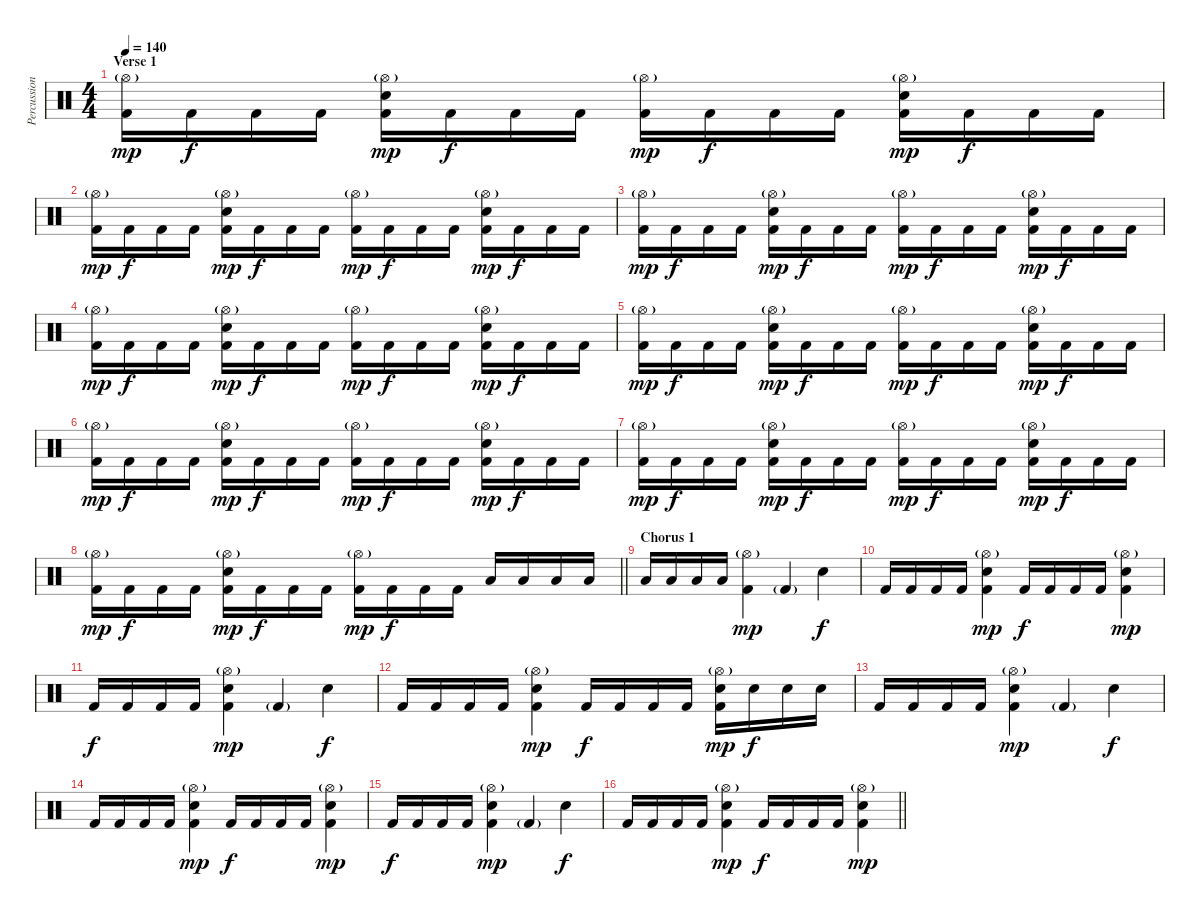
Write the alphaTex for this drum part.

\track ("Percussions" "Percussion") {instrument percussion}
\staff {score}
\articulation defaults
\ts (4 4)
\section ("" "Verse 1")
\tempo 140
\clef neutral
\ks c
("Hi-Hat (open)"{g} "Kick (hit) 2").16{dy mp} "Kick (hit) 2".16{dy f} "Kick (hit) 2".16 "Kick (hit) 2".16 ("Hi-Hat (open)"{g} "Electric Snare (hit)" "Kick (hit) 2").16{dy mp} "Kick (hit) 2".16{dy f} "Kick (hit) 2".16 "Kick (hit) 2".16 ("Hi-Hat (open)"{g} "Kick (hit) 2").16{dy mp} "Kick (hit) 2".16{dy f} "Kick (hit) 2".16 "Kick (hit) 2".16 ("Hi-Hat (open)"{g} "Electric Snare (hit)" "Kick (hit) 2").16{dy mp} "Kick (hit) 2".16{dy f} "Kick (hit) 2".16 "Kick (hit) 2".16 |
("Hi-Hat (open)"{g} "Kick (hit) 2").16{dy mp} "Kick (hit) 2".16{dy f} "Kick (hit) 2".16 "Kick (hit) 2".16 ("Hi-Hat (open)"{g} "Electric Snare (hit)" "Kick (hit) 2").16{dy mp} "Kick (hit) 2".16{dy f} "Kick (hit) 2".16 "Kick (hit) 2".16 ("Hi-Hat (open)"{g} "Kick (hit) 2").16{dy mp} "Kick (hit) 2".16{dy f} "Kick (hit) 2".16 "Kick (hit) 2".16 ("Hi-Hat (open)"{g} "Electric Snare (hit)" "Kick (hit) 2").16{dy mp} "Kick (hit) 2".16{dy f} "Kick (hit) 2".16 "Kick (hit) 2".16 |
("Hi-Hat (open)"{g} "Kick (hit) 2").16{dy mp} "Kick (hit) 2".16{dy f} "Kick (hit) 2".16 "Kick (hit) 2".16 ("Hi-Hat (open)"{g} "Electric Snare (hit)" "Kick (hit) 2").16{dy mp} "Kick (hit) 2".16{dy f} "Kick (hit) 2".16 "Kick (hit) 2".16 ("Hi-Hat (open)"{g} "Kick (hit) 2").16{dy mp} "Kick (hit) 2".16{dy f} "Kick (hit) 2".16 "Kick (hit) 2".16 ("Hi-Hat (open)"{g} "Electric Snare (hit)" "Kick (hit) 2").16{dy mp} "Kick (hit) 2".16{dy f} "Kick (hit) 2".16 "Kick (hit) 2".16 |
("Hi-Hat (open)"{g} "Kick (hit) 2").16{dy mp} "Kick (hit) 2".16{dy f} "Kick (hit) 2".16 "Kick (hit) 2".16 ("Hi-Hat (open)"{g} "Electric Snare (hit)" "Kick (hit) 2").16{dy mp} "Kick (hit) 2".16{dy f} "Kick (hit) 2".16 "Kick (hit) 2".16 ("Hi-Hat (open)"{g} "Kick (hit) 2").16{dy mp} "Kick (hit) 2".16{dy f} "Kick (hit) 2".16 "Kick (hit) 2".16 ("Hi-Hat (open)"{g} "Electric Snare (hit)" "Kick (hit) 2").16{dy mp} "Kick (hit) 2".16{dy f} "Kick (hit) 2".16 "Kick (hit) 2".16 |
("Hi-Hat (open)"{g} "Kick (hit) 2").16{dy mp} "Kick (hit) 2".16{dy f} "Kick (hit) 2".16 "Kick (hit) 2".16 ("Hi-Hat (open)"{g} "Electric Snare (hit)" "Kick (hit) 2").16{dy mp} "Kick (hit) 2".16{dy f} "Kick (hit) 2".16 "Kick (hit) 2".16 ("Hi-Hat (open)"{g} "Kick (hit) 2").16{dy mp} "Kick (hit) 2".16{dy f} "Kick (hit) 2".16 "Kick (hit) 2".16 ("Hi-Hat (open)"{g} "Electric Snare (hit)" "Kick (hit) 2").16{dy mp} "Kick (hit) 2".16{dy f} "Kick (hit) 2".16 "Kick (hit) 2".16 |
("Hi-Hat (open)"{g} "Kick (hit) 2").16{dy mp} "Kick (hit) 2".16{dy f} "Kick (hit) 2".16 "Kick (hit) 2".16 ("Hi-Hat (open)"{g} "Electric Snare (hit)" "Kick (hit) 2").16{dy mp} "Kick (hit) 2".16{dy f} "Kick (hit) 2".16 "Kick (hit) 2".16 ("Hi-Hat (open)"{g} "Kick (hit) 2").16{dy mp} "Kick (hit) 2".16{dy f} "Kick (hit) 2".16 "Kick (hit) 2".16 ("Hi-Hat (open)"{g} "Electric Snare (hit)" "Kick (hit) 2").16{dy mp} "Kick (hit) 2".16{dy f} "Kick (hit) 2".16 "Kick (hit) 2".16 |
("Hi-Hat (open)"{g} "Kick (hit) 2").16{dy mp} "Kick (hit) 2".16{dy f} "Kick (hit) 2".16 "Kick (hit) 2".16 ("Hi-Hat (open)"{g} "Electric Snare (hit)" "Kick (hit) 2").16{dy mp} "Kick (hit) 2".16{dy f} "Kick (hit) 2".16 "Kick (hit) 2".16 ("Hi-Hat (open)"{g} "Kick (hit) 2").16{dy mp} "Kick (hit) 2".16{dy f} "Kick (hit) 2".16 "Kick (hit) 2".16 ("Hi-Hat (open)"{g} "Electric Snare (hit)" "Kick (hit) 2").16{dy mp} "Kick (hit) 2".16{dy f} "Kick (hit) 2".16 "Kick (hit) 2".16 |
\barLineRight lightlight
("Hi-Hat (open)"{g} "Kick (hit) 2").16{dy mp} "Kick (hit) 2".16{dy f} "Kick (hit) 2".16 "Kick (hit) 2".16 ("Hi-Hat (open)"{g} "Electric Snare (hit)" "Kick (hit) 2").16{dy mp} "Kick (hit) 2".16{dy f} "Kick (hit) 2".16 "Kick (hit) 2".16 ("Hi-Hat (open)"{g} "Kick (hit) 2").16{dy mp} "Kick (hit) 2".16{dy f} "Kick (hit) 2".16 "Kick (hit) 2".16 "Low Tom (hit)".16 "Low Tom (hit)".16 "Low Tom (hit)".16 "Low Tom (hit)".16 |
\section ("" "Chorus 1")
"Low Floor Tom (hit)".16 "Low Floor Tom (hit)".16 "Low Floor Tom (hit)".16 "Low Floor Tom (hit)".16 ("Hi-Hat (open)"{g} "Kick (hit) 2").4{dy mp} "Kick (hit) 2"{g}.4 "Electric Snare (hit)".4{dy f} |
"Kick (hit) 2".16 "Kick (hit) 2".16 "Kick (hit) 2".16 "Kick (hit) 2".16 ("Hi-Hat (open)"{g} "Electric Snare (hit)" "Kick (hit) 2").4{dy mp} "Kick (hit) 2".16{dy f} "Kick (hit) 2".16 "Kick (hit) 2".16 "Kick (hit) 2".16 ("Hi-Hat (open)"{g} "Electric Snare (hit)" "Kick (hit) 2").4{dy mp} |
"Kick (hit) 2".16{dy f} "Kick (hit) 2".16 "Kick (hit) 2".16 "Kick (hit) 2".16 ("Hi-Hat (open)"{g} "Electric Snare (hit)" "Kick (hit) 2").4{dy mp} "Kick (hit) 2"{g}.4 "Electric Snare (hit)".4{dy f} |
"Kick (hit) 2".16 "Kick (hit) 2".16 "Kick (hit) 2".16 "Kick (hit) 2".16 ("Hi-Hat (open)"{g} "Electric Snare (hit)" "Kick (hit) 2").4{dy mp} "Kick (hit) 2".16{dy f} "Kick (hit) 2".16 "Kick (hit) 2".16 "Kick (hit) 2".16 ("Hi-Hat (open)"{g} "Electric Snare (hit)" "Kick (hit) 2").16{dy mp} "Electric Snare (hit)".16{dy f} "Electric Snare (hit)".16 "Electric Snare (hit)".16 |
"Kick (hit) 2".16 "Kick (hit) 2".16 "Kick (hit) 2".16 "Kick (hit) 2".16 ("Hi-Hat (open)"{g} "Electric Snare (hit)" "Kick (hit) 2").4{dy mp} "Kick (hit) 2"{g}.4 "Electric Snare (hit)".4{dy f} |
"Kick (hit) 2".16 "Kick (hit) 2".16 "Kick (hit) 2".16 "Kick (hit) 2".16 ("Hi-Hat (open)"{g} "Electric Snare (hit)" "Kick (hit) 2").4{dy mp} "Kick (hit) 2".16{dy f} "Kick (hit) 2".16 "Kick (hit) 2".16 "Kick (hit) 2".16 ("Hi-Hat (open)"{g} "Electric Snare (hit)" "Kick (hit) 2").4{dy mp} |
"Kick (hit) 2".16{dy f} "Kick (hit) 2".16 "Kick (hit) 2".16 "Kick (hit) 2".16 ("Hi-Hat (open)"{g} "Electric Snare (hit)" "Kick (hit) 2").4{dy mp} "Kick (hit) 2"{g}.4 "Electric Snare (hit)".4{dy f} |
\barLineRight lightlight "Kick (hit) 2".16 "Kick (hit) 2".16 "Kick (hit) 2".16 "Kick (hit) 2".16
("Hi-Hat (open)"{g} "Electric Snare (hit)" "Kick (hit) 2").4{dy mp} "Kick (hit) 2".16{dy f} "Kick (hit) 2".16 "Kick (hit) 2".16 "Kick (hit) 2".16 ("Hi-Hat (open)"{g} "Electric Snare (hit)" "Kick (hit) 2").4{dy mp}
